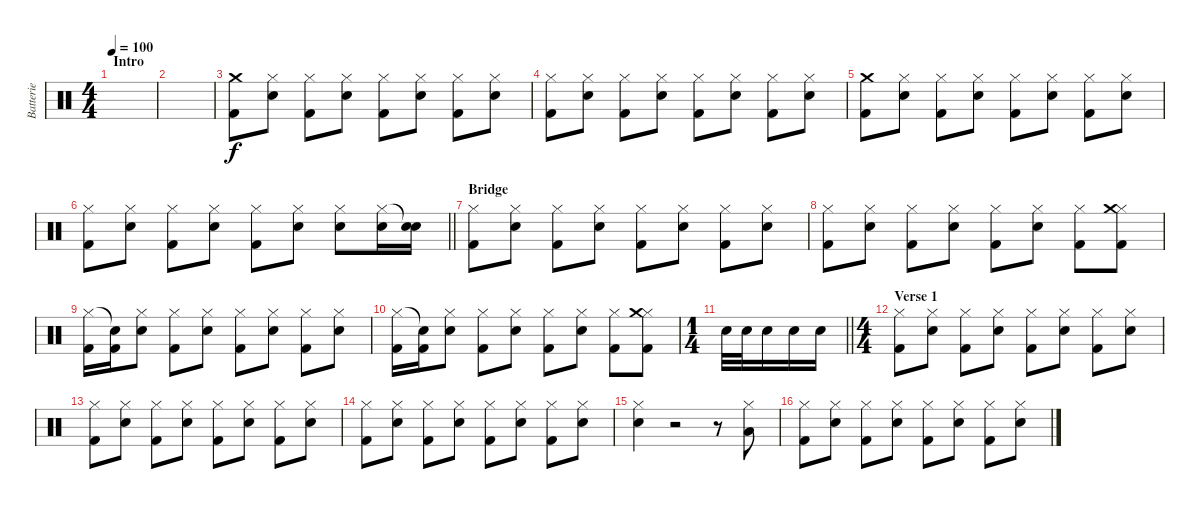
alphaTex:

\track ("Batterie" "Batterie") {instrument percussion}
\staff {score}
\articulation defaults
\ts (4 4)
\section ("" "Intro")
\tempo 100
\clef neutral
\ks c
|
|
("Kick (hit) 2" "Crash medium (hit)").8 ("Electric Snare (hit)" "Hi-Hat (closed)").8 ("Kick (hit) 2" "Hi-Hat (closed)").8 ("Electric Snare (hit)" "Hi-Hat (closed)").8 ("Kick (hit) 2" "Hi-Hat (closed)").8 ("Electric Snare (hit)" "Hi-Hat (closed)").8 ("Kick (hit) 2" "Hi-Hat (closed)").8 ("Electric Snare (hit)" "Hi-Hat (closed)").8 |
("Kick (hit) 2" "Hi-Hat (closed)").8 ("Electric Snare (hit)" "Hi-Hat (closed)").8 ("Kick (hit) 2" "Hi-Hat (closed)").8 ("Electric Snare (hit)" "Hi-Hat (closed)").8 ("Kick (hit) 2" "Hi-Hat (closed)").8 ("Electric Snare (hit)" "Hi-Hat (closed)").8 ("Kick (hit) 2" "Hi-Hat (closed)").8 ("Electric Snare (hit)" "Hi-Hat (closed)").8 |
("Kick (hit) 2" "Crash medium (hit)").8 ("Electric Snare (hit)" "Hi-Hat (closed)").8 ("Kick (hit) 2" "Hi-Hat (closed)").8 ("Electric Snare (hit)" "Hi-Hat (closed)").8 ("Kick (hit) 2" "Hi-Hat (closed)").8 ("Electric Snare (hit)" "Hi-Hat (closed)").8 ("Kick (hit) 2" "Hi-Hat (closed)").8 ("Electric Snare (hit)" "Hi-Hat (closed)").8 |
\barLineRight lightlight
("Kick (hit) 2" "Hi-Hat (closed)").8 ("Electric Snare (hit)" "Hi-Hat (closed)").8 ("Kick (hit) 2" "Hi-Hat (closed)").8 ("Electric Snare (hit)" "Hi-Hat (closed)").8 ("Kick (hit) 2" "Hi-Hat (closed)").8 ("Electric Snare (hit)" "Hi-Hat (closed)").8 ("Electric Snare (hit)" "Hi-Hat (closed)").8 ("Electric Snare (hit)" "Hi-Hat (closed)").16 ("Electric Snare (hit)" "Snare (hit)"{t}).16 |
\section ("" "Bridge")
("Kick (hit) 2" "Hi-Hat (closed)").8 ("Electric Snare (hit)" "Hi-Hat (closed)").8 ("Kick (hit) 2" "Hi-Hat (closed)").8 ("Electric Snare (hit)" "Hi-Hat (closed)").8 ("Kick (hit) 2" "Hi-Hat (closed)").8 ("Electric Snare (hit)" "Hi-Hat (closed)").8 ("Kick (hit) 2" "Hi-Hat (closed)").8 ("Electric Snare (hit)" "Hi-Hat (closed)").8 |
("Kick (hit) 2" "Hi-Hat (closed)").8 ("Electric Snare (hit)" "Hi-Hat (closed)").8 ("Kick (hit) 2" "Hi-Hat (closed)").8 ("Electric Snare (hit)" "Hi-Hat (closed)").8 ("Kick (hit) 2" "Hi-Hat (closed)").8 ("Electric Snare (hit)" "Hi-Hat (closed)").8 ("Kick (hit) 2" "Hi-Hat (closed)").8 ("Kick (hit) 2" "Hi-Hat (closed)" "Crash medium (hit)").8 |
("Kick (hit) 2" "Hi-Hat (closed)").16 ("Kick (hit) 2" "Snare (hit)"{t}).16 ("Electric Snare (hit)" "Hi-Hat (closed)").8 ("Kick (hit) 2" "Hi-Hat (closed)").8 ("Electric Snare (hit)" "Hi-Hat (closed)").8 ("Kick (hit) 2" "Hi-Hat (closed)").8 ("Electric Snare (hit)" "Hi-Hat (closed)").8 ("Kick (hit) 2" "Hi-Hat (closed)").8 ("Electric Snare (hit)" "Hi-Hat (closed)").8 |
("Kick (hit) 2" "Hi-Hat (closed)").16 ("Kick (hit) 2" "Snare (hit)"{t}).16 ("Electric Snare (hit)" "Hi-Hat (closed)").8 ("Kick (hit) 2" "Hi-Hat (closed)").8 ("Electric Snare (hit)" "Hi-Hat (closed)").8 ("Kick (hit) 2" "Hi-Hat (closed)").8 ("Electric Snare (hit)" "Hi-Hat (closed)").8 ("Kick (hit) 2" "Hi-Hat (closed)").8 ("Kick (hit) 2" "Hi-Hat (closed)" "Crash medium (hit)").8 |
\ts (1 4)
\barLineRight lightlight "Electric Snare (hit)".32 "Electric Snare (hit)".32 "Electric Snare (hit)".16 "Electric Snare (hit)".16 "Electric Snare (hit)".16
|
\ts (4 4)
\section ("" "Verse 1")
("Kick (hit) 2" "Hi-Hat (closed)").8 ("Electric Snare (hit)" "Hi-Hat (closed)").8 ("Kick (hit) 2" "Hi-Hat (closed)").8 ("Electric Snare (hit)" "Hi-Hat (closed)").8 ("Kick (hit) 2" "Hi-Hat (closed)").8 ("Electric Snare (hit)" "Hi-Hat (closed)").8 ("Kick (hit) 2" "Hi-Hat (closed)").8 ("Electric Snare (hit)" "Hi-Hat (closed)").8 |
("Kick (hit) 2" "Hi-Hat (closed)").8 ("Electric Snare (hit)" "Hi-Hat (closed)").8 ("Kick (hit) 2" "Hi-Hat (closed)").8 ("Electric Snare (hit)" "Hi-Hat (closed)").8 ("Kick (hit) 2" "Hi-Hat (closed)").8 ("Electric Snare (hit)" "Hi-Hat (closed)").8 ("Kick (hit) 2" "Hi-Hat (closed)").8 ("Electric Snare (hit)" "Hi-Hat (closed)").8 |
("Kick (hit) 2" "Hi-Hat (closed)").8 ("Electric Snare (hit)" "Hi-Hat (closed)").8 ("Kick (hit) 2" "Hi-Hat (closed)").8 ("Electric Snare (hit)" "Hi-Hat (closed)").8 ("Kick (hit) 2" "Hi-Hat (closed)").8 ("Electric Snare (hit)" "Hi-Hat (closed)").8 ("Kick (hit) 2" "Hi-Hat (closed)").8 ("Electric Snare (hit)" "Hi-Hat (closed)").8 |
("Electric Snare (hit)" "Hi-Hat (closed)").4 r.2 r.8 ("Low Tom (hit)" "Hi-Hat (closed)").8 |
("Kick (hit) 2" "Hi-Hat (closed)").8 ("Electric Snare (hit)" "Hi-Hat (closed)").8 ("Kick (hit) 2" "Hi-Hat (closed)").8 ("Electric Snare (hit)" "Hi-Hat (closed)").8 ("Kick (hit) 2" "Hi-Hat (closed)").8 ("Electric Snare (hit)" "Hi-Hat (closed)").8 ("Kick (hit) 2" "Hi-Hat (closed)").8 ("Electric Snare (hit)" "Hi-Hat (closed)").8
